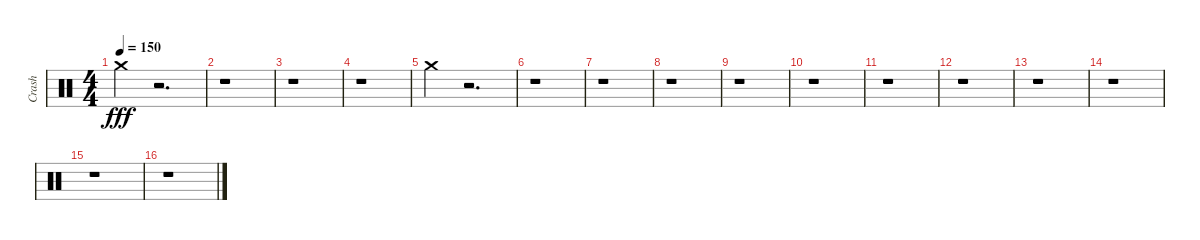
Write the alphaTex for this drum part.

\track ("Crash" "Crash") {instrument percussion}
\staff {score}
\articulation defaults
\ts (4 4)
\tempo 150
\clef neutral
\ks c "Crash medium (hit)".4{dy fff}
r.2{d} |
r.1 |
r.1 |
r.1 |
"Crash medium (hit)".4 r.2{d} |
r.1 |
r.1 |
r.1 |
r.1 |
r.1 |
r.1 |
r.1 |
r.1 |
r.1 |
r.1 |
r.1
